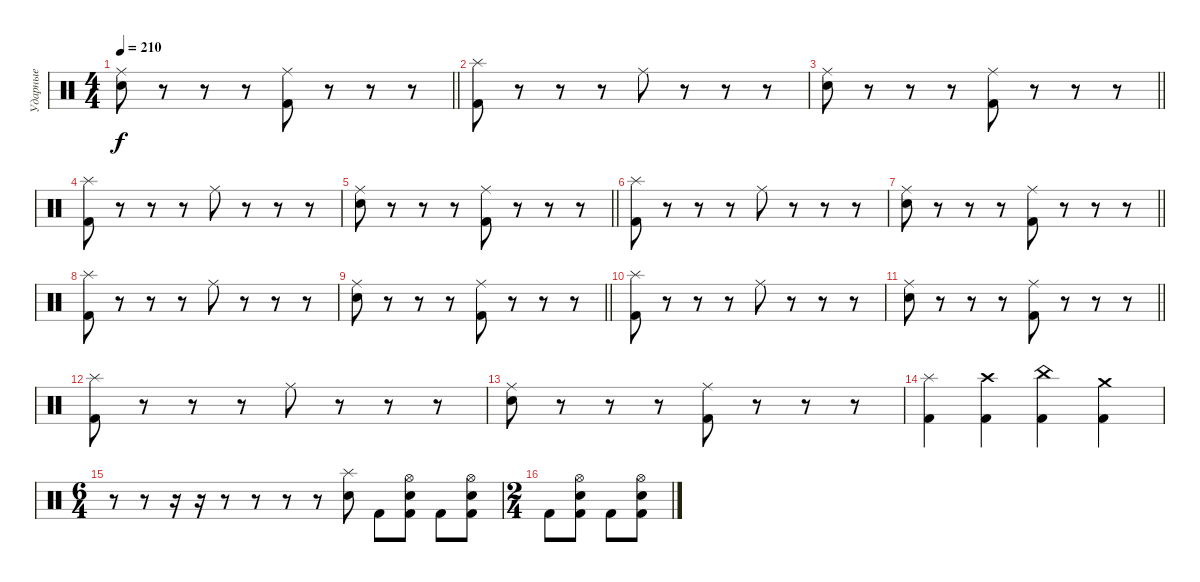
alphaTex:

\track ("Ударные" "Ударные") {mute instrument percussion}
\staff {score}
\articulation defaults
\ts (4 4)
\tempo 210
\clef neutral
\barLineRight lightlight
\ks c
("Electric Snare (hit)" "Ride (middle)").8{dy f} r.8 r.8 r.8 ("Kick (hit) 2" "Ride (middle)").8 r.8 r.8 r.8 |
("Kick (hit) 2" "Splash (hit)").8 r.8 r.8 r.8 "Ride (middle)".8 r.8 r.8 r.8 |
\barLineRight lightlight
("Electric Snare (hit)" "Ride (middle)").8 r.8 r.8 r.8 ("Kick (hit) 2" "Ride (middle)").8 r.8 r.8 r.8 |
("Kick (hit) 2" "Splash (hit)").8 r.8 r.8 r.8 "Ride (middle)".8 r.8 r.8 r.8 |
\barLineRight lightlight
("Electric Snare (hit)" "Ride (middle)").8 r.8 r.8 r.8 ("Kick (hit) 2" "Ride (middle)").8 r.8 r.8 r.8 |
("Kick (hit) 2" "Splash (hit)").8 r.8 r.8 r.8 "Ride (middle)".8 r.8 r.8 r.8 |
\barLineRight lightlight
("Electric Snare (hit)" "Ride (middle)").8 r.8 r.8 r.8 ("Kick (hit) 2" "Ride (middle)").8 r.8 r.8 r.8 |
("Kick (hit) 2" "Splash (hit)").8 r.8 r.8 r.8 "Ride (middle)".8 r.8 r.8 r.8 |
\barLineRight lightlight
("Electric Snare (hit)" "Ride (middle)").8 r.8 r.8 r.8 ("Kick (hit) 2" "Ride (middle)").8 r.8 r.8 r.8 |
("Kick (hit) 2" "Splash (hit)").8 r.8 r.8 r.8 "Ride (middle)".8 r.8 r.8 r.8 |
\barLineRight lightlight
("Electric Snare (hit)" "Ride (middle)").8 r.8 r.8 r.8 ("Kick (hit) 2" "Ride (middle)").8 r.8 r.8 r.8 |
("Kick (hit) 2" "Splash (hit)").8 r.8 r.8 r.8 "Ride (middle)".8 r.8 r.8 r.8 |
("Electric Snare (hit)" "Ride (middle)").8 r.8 r.8 r.8 ("Kick (hit) 2" "Ride (middle)").8 r.8 r.8 r.8 |
("Kick (hit) 2" "Splash (hit)").4 ("Kick (hit) 2" "Crash high (hit)").4 ("Kick (hit) 2" "China (hit)").4 ("Kick (hit) 2" "Crash medium (hit)").4 |
\ts (6 4)
r.8 r.8 r.16 r.16 r.8 r.8 r.8 r.8 ("Electric Snare (hit)" "Splash (hit)").8 "Kick (hit) 2".8 ("Kick (hit) 2" "Electric Snare (hit)" "Hi-Hat (open)").8 "Kick (hit) 2".8 ("Kick (hit) 2" "Electric Snare (hit)" "Hi-Hat (open)").8 |
\ts (2 4)
"Kick (hit) 2".8 ("Kick (hit) 2" "Electric Snare (hit)" "Hi-Hat (open)").8 "Kick (hit) 2".8 ("Electric Snare (hit)" "Hi-Hat (open)" "Kick (hit) 2").8
